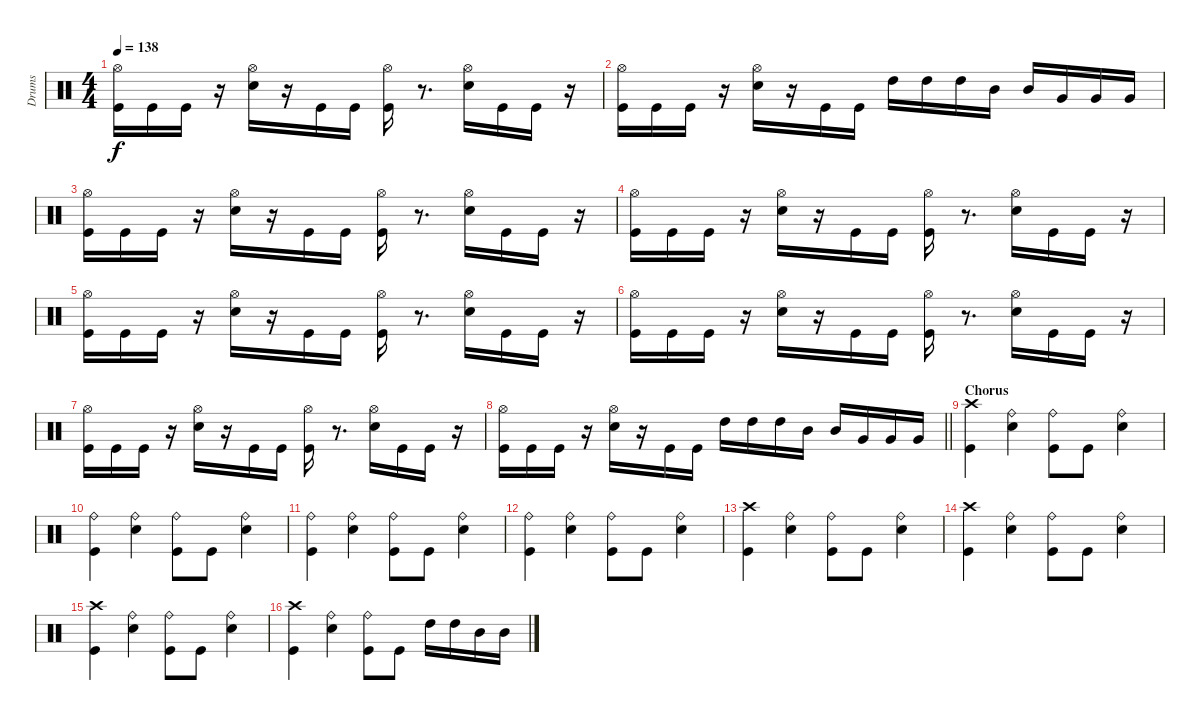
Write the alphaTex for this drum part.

\track ("Drums" "Drums") {instrument percussion}
\staff {score}
\articulation defaults
\ts (4 4)
\section ("" "")
\tempo 138
\clef neutral
\ks c
("Hi-Hat (open)" "Kick (hit)").16{dy f} "Kick (hit)".16 "Kick (hit)".16 r.16 ("Hi-Hat (open)" "Electric Snare (hit)").16 r.16 "Kick (hit)".16 "Kick (hit)".16 ("Hi-Hat (open)" "Kick (hit)").16 r.8{d} ("Hi-Hat (open)" "Electric Snare (hit)").16 "Kick (hit)".16 "Kick (hit)".16 r.16 |
("Hi-Hat (open)" "Kick (hit)").16 "Kick (hit)".16 "Kick (hit)".16 r.16 ("Hi-Hat (open)" "Electric Snare (hit)").16 r.16 "Kick (hit)".16 "Kick (hit)".16 "High Tom (hit)".16 "High Tom (hit)".16 "High Tom (hit)".16 "Mid Tom (hit)".16 "Mid Tom (hit)".16 "Very Low Tom (hit)".16 "Very Low Tom (hit)".16 "Very Low Tom (hit)".16 |
("Hi-Hat (open)" "Kick (hit)").16 "Kick (hit)".16 "Kick (hit)".16 r.16 ("Hi-Hat (open)" "Electric Snare (hit)").16 r.16 "Kick (hit)".16 "Kick (hit)".16 ("Hi-Hat (open)" "Kick (hit)").16 r.8{d} ("Hi-Hat (open)" "Electric Snare (hit)").16 "Kick (hit)".16 "Kick (hit)".16 r.16 |
("Hi-Hat (open)" "Kick (hit)").16 "Kick (hit)".16 "Kick (hit)".16 r.16 ("Hi-Hat (open)" "Electric Snare (hit)").16 r.16 "Kick (hit)".16 "Kick (hit)".16 ("Hi-Hat (open)" "Kick (hit)").16 r.8{d} ("Hi-Hat (open)" "Electric Snare (hit)").16 "Kick (hit)".16 "Kick (hit)".16 r.16 |
("Hi-Hat (open)" "Kick (hit)").16 "Kick (hit)".16 "Kick (hit)".16 r.16 ("Hi-Hat (open)" "Electric Snare (hit)").16 r.16 "Kick (hit)".16 "Kick (hit)".16 ("Hi-Hat (open)" "Kick (hit)").16 r.8{d} ("Hi-Hat (open)" "Electric Snare (hit)").16 "Kick (hit)".16 "Kick (hit)".16 r.16 |
("Hi-Hat (open)" "Kick (hit)").16 "Kick (hit)".16 "Kick (hit)".16 r.16 ("Hi-Hat (open)" "Electric Snare (hit)").16 r.16 "Kick (hit)".16 "Kick (hit)".16 ("Hi-Hat (open)" "Kick (hit)").16 r.8{d} ("Hi-Hat (open)" "Electric Snare (hit)").16 "Kick (hit)".16 "Kick (hit)".16 r.16 |
("Hi-Hat (open)" "Kick (hit)").16 "Kick (hit)".16 "Kick (hit)".16 r.16 ("Hi-Hat (open)" "Electric Snare (hit)").16 r.16 "Kick (hit)".16 "Kick (hit)".16 ("Hi-Hat (open)" "Kick (hit)").16 r.8{d} ("Hi-Hat (open)" "Electric Snare (hit)").16 "Kick (hit)".16 "Kick (hit)".16 r.16 |
\barLineRight lightlight
("Hi-Hat (open)" "Kick (hit)").16 "Kick (hit)".16 "Kick (hit)".16 r.16 ("Hi-Hat (open)" "Electric Snare (hit)").16 r.16 "Kick (hit)".16 "Kick (hit)".16 "High Tom (hit)".16 "High Tom (hit)".16 "High Tom (hit)".16 "Mid Tom (hit)".16 "Mid Tom (hit)".16 "Very Low Tom (hit)".16 "Very Low Tom (hit)".16 "Very Low Tom (hit)".16 |
\section ("" "Chorus ")
("Crash high (hit)" "Kick (hit)").4 ("Ride (bell)" "Electric Snare (hit)").4 ("Ride (bell)" "Kick (hit)").8 "Kick (hit)".8 ("Ride (bell)" "Electric Snare (hit)").4 |
("Ride (bell)" "Kick (hit)").4 ("Ride (bell)" "Electric Snare (hit)").4 ("Ride (bell)" "Kick (hit)").8 "Kick (hit)".8 ("Ride (bell)" "Electric Snare (hit)").4 |
("Ride (bell)" "Kick (hit)").4 ("Ride (bell)" "Electric Snare (hit)").4 ("Ride (bell)" "Kick (hit)").8 "Kick (hit)".8 ("Ride (bell)" "Electric Snare (hit)").4 |
("Ride (bell)" "Kick (hit)").4 ("Ride (bell)" "Electric Snare (hit)").4 ("Ride (bell)" "Kick (hit)").8 "Kick (hit)".8 ("Ride (bell)" "Electric Snare (hit)").4 |
("Crash high (hit)" "Kick (hit)").4 ("Ride (bell)" "Electric Snare (hit)").4 ("Ride (bell)" "Kick (hit)").8 "Kick (hit)".8 ("Ride (bell)" "Electric Snare (hit)").4 |
("Crash high (hit)" "Kick (hit)").4 ("Ride (bell)" "Electric Snare (hit)").4 ("Ride (bell)" "Kick (hit)").8 "Kick (hit)".8 ("Ride (bell)" "Electric Snare (hit)").4 |
("Crash high (hit)" "Kick (hit)").4 ("Ride (bell)" "Electric Snare (hit)").4 ("Ride (bell)" "Kick (hit)").8 "Kick (hit)".8 ("Ride (bell)" "Electric Snare (hit)").4 |
("Crash high (hit)" "Kick (hit)").4 ("Ride (bell)" "Electric Snare (hit)").4 ("Ride (bell)" "Kick (hit)").8 "Kick (hit)".8 "High Tom (hit)".16 "High Tom (hit)".16 "Mid Tom (hit)".16 "Mid Tom (hit)".16
